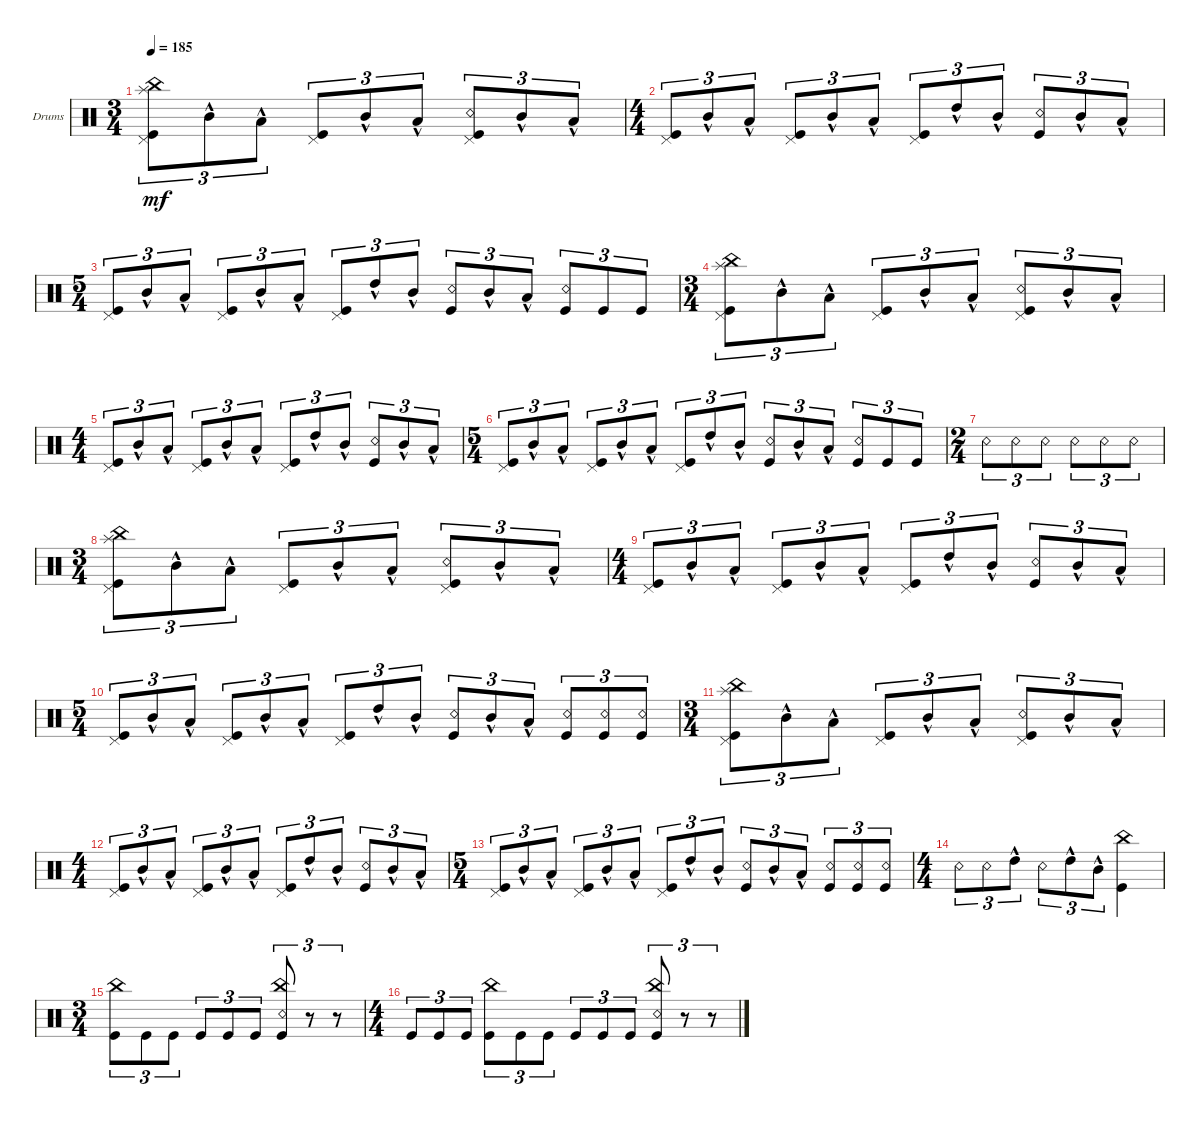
\defaultSystemsLayout 4
\bracketExtendMode groupsimilarinstruments
\firstSystemTrackNameOrientation horizontal
\otherSystemsTrackNameOrientation horizontal
\track ("Ryan" "Drums") {instrument percussion}
\staff {score}
\articulation defaults
\ts (3 4)
\tempo 185
\clef neutral
\ks c
("Kick (hit)" "Pedal Hi-Hat (hit)" "China (hit)" "Splash (hit)").8{tu (3 2) dy mf} "Mid Tom (hit)"{hac}.8{tu (3 2)} "Low Tom (hit)"{hac}.8{tu (3 2)} ("Kick (hit)" "Pedal Hi-Hat (hit)").8{tu (3 2)} "Mid Tom (hit)"{hac}.8{tu (3 2)} "Low Tom (hit)"{hac}.8{tu (3 2)} ("Pedal Hi-Hat (hit)" "Snare (rim shot)" "Kick (hit)").8{tu (3 2)} "Mid Tom (hit)"{hac}.8{tu (3 2)} "Low Tom (hit)"{hac}.8{tu (3 2)} |
\ts (4 4)
("Kick (hit)" "Pedal Hi-Hat (hit)").8{tu (3 2)} "Mid Tom (hit)"{hac}.8{tu (3 2)} "Low Tom (hit)"{hac}.8{tu (3 2)} ("Kick (hit)" "Pedal Hi-Hat (hit)").8{tu (3 2)} "Mid Tom (hit)"{hac}.8{tu (3 2)} "Low Tom (hit)"{hac}.8{tu (3 2)} ("Kick (hit)" "Pedal Hi-Hat (hit)").8{tu (3 2)} "High Tom (hit)"{hac}.8{tu (3 2)} "Mid Tom (hit)"{hac}.8{tu (3 2)} ("Snare (rim shot)" "Kick (hit)").8{tu (3 2)} "Mid Tom (hit)"{hac}.8{tu (3 2)} "Low Tom (hit)"{hac}.8{tu (3 2)} |
\ts (5 4)
("Kick (hit)" "Pedal Hi-Hat (hit)").8{tu (3 2)} "Mid Tom (hit)"{hac}.8{tu (3 2)} "Low Tom (hit)"{hac}.8{tu (3 2)} ("Kick (hit)" "Pedal Hi-Hat (hit)").8{tu (3 2)} "Mid Tom (hit)"{hac}.8{tu (3 2)} "Low Tom (hit)"{hac}.8{tu (3 2)} ("Kick (hit)" "Pedal Hi-Hat (hit)").8{tu (3 2)} "High Tom (hit)"{hac}.8{tu (3 2)} "Mid Tom (hit)"{hac}.8{tu (3 2)} ("Snare (rim shot)" "Kick (hit)").8{tu (3 2)} "Mid Tom (hit)"{hac}.8{tu (3 2)} "Low Tom (hit)"{hac}.8{tu (3 2)} ("Kick (hit)" "Snare (rim shot)").8{tu (3 2)} "Kick (hit)".8{tu (3 2)} "Kick (hit)".8{tu (3 2)} |
\ts (3 4)
("Kick (hit)" "Pedal Hi-Hat (hit)" "China (hit)" "Splash (hit)").8{tu (3 2)} "Mid Tom (hit)"{hac}.8{tu (3 2)} "Low Tom (hit)"{hac}.8{tu (3 2)} ("Kick (hit)" "Pedal Hi-Hat (hit)").8{tu (3 2)} "Mid Tom (hit)"{hac}.8{tu (3 2)} "Low Tom (hit)"{hac}.8{tu (3 2)} ("Pedal Hi-Hat (hit)" "Snare (rim shot)" "Kick (hit)").8{tu (3 2)} "Mid Tom (hit)"{hac}.8{tu (3 2)} "Low Tom (hit)"{hac}.8{tu (3 2)} |
\ts (4 4)
("Kick (hit)" "Pedal Hi-Hat (hit)").8{tu (3 2)} "Mid Tom (hit)"{hac}.8{tu (3 2)} "Low Tom (hit)"{hac}.8{tu (3 2)} ("Kick (hit)" "Pedal Hi-Hat (hit)").8{tu (3 2)} "Mid Tom (hit)"{hac}.8{tu (3 2)} "Low Tom (hit)"{hac}.8{tu (3 2)} ("Kick (hit)" "Pedal Hi-Hat (hit)").8{tu (3 2)} "High Tom (hit)"{hac}.8{tu (3 2)} "Mid Tom (hit)"{hac}.8{tu (3 2)} ("Snare (rim shot)" "Kick (hit)").8{tu (3 2)} "Mid Tom (hit)"{hac}.8{tu (3 2)} "Low Tom (hit)"{hac}.8{tu (3 2)} |
\ts (5 4)
("Kick (hit)" "Pedal Hi-Hat (hit)").8{tu (3 2)} "Mid Tom (hit)"{hac}.8{tu (3 2)} "Low Tom (hit)"{hac}.8{tu (3 2)} ("Kick (hit)" "Pedal Hi-Hat (hit)").8{tu (3 2)} "Mid Tom (hit)"{hac}.8{tu (3 2)} "Low Tom (hit)"{hac}.8{tu (3 2)} ("Kick (hit)" "Pedal Hi-Hat (hit)").8{tu (3 2)} "High Tom (hit)"{hac}.8{tu (3 2)} "Mid Tom (hit)"{hac}.8{tu (3 2)} ("Snare (rim shot)" "Kick (hit)").8{tu (3 2)} "Mid Tom (hit)"{hac}.8{tu (3 2)} "Low Tom (hit)"{hac}.8{tu (3 2)} ("Kick (hit)" "Snare (rim shot)").8{tu (3 2)} "Kick (hit)".8{tu (3 2)} "Kick (hit)".8{tu (3 2)} |
\ts (2 4)
"Snare (rim shot)".8{tu (3 2)} "Snare (rim shot)".8{tu (3 2)} "Snare (rim shot)".8{tu (3 2)} "Snare (rim shot)".8{tu (3 2)} "Snare (rim shot)".8{tu (3 2)} "Snare (rim shot)".8{tu (3 2)} |
\ts (3 4)
("Kick (hit)" "Pedal Hi-Hat (hit)" "China (hit)" "Splash (hit)").8{tu (3 2)} "Mid Tom (hit)"{hac}.8{tu (3 2)} "Low Tom (hit)"{hac}.8{tu (3 2)} ("Kick (hit)" "Pedal Hi-Hat (hit)").8{tu (3 2)} "Mid Tom (hit)"{hac}.8{tu (3 2)} "Low Tom (hit)"{hac}.8{tu (3 2)} ("Pedal Hi-Hat (hit)" "Snare (rim shot)" "Kick (hit)").8{tu (3 2)} "Mid Tom (hit)"{hac}.8{tu (3 2)} "Low Tom (hit)"{hac}.8{tu (3 2)} |
\ts (4 4)
("Kick (hit)" "Pedal Hi-Hat (hit)").8{tu (3 2)} "Mid Tom (hit)"{hac}.8{tu (3 2)} "Low Tom (hit)"{hac}.8{tu (3 2)} ("Kick (hit)" "Pedal Hi-Hat (hit)").8{tu (3 2)} "Mid Tom (hit)"{hac}.8{tu (3 2)} "Low Tom (hit)"{hac}.8{tu (3 2)} ("Kick (hit)" "Pedal Hi-Hat (hit)").8{tu (3 2)} "High Tom (hit)"{hac}.8{tu (3 2)} "Mid Tom (hit)"{hac}.8{tu (3 2)} ("Snare (rim shot)" "Kick (hit)").8{tu (3 2)} "Mid Tom (hit)"{hac}.8{tu (3 2)} "Low Tom (hit)"{hac}.8{tu (3 2)} |
\ts (5 4)
("Kick (hit)" "Pedal Hi-Hat (hit)").8{tu (3 2)} "Mid Tom (hit)"{hac}.8{tu (3 2)} "Low Tom (hit)"{hac}.8{tu (3 2)} ("Kick (hit)" "Pedal Hi-Hat (hit)").8{tu (3 2)} "Mid Tom (hit)"{hac}.8{tu (3 2)} "Low Tom (hit)"{hac}.8{tu (3 2)} ("Kick (hit)" "Pedal Hi-Hat (hit)").8{tu (3 2)} "High Tom (hit)"{hac}.8{tu (3 2)} "Mid Tom (hit)"{hac}.8{tu (3 2)} ("Snare (rim shot)" "Kick (hit)").8{tu (3 2)} "Mid Tom (hit)"{hac}.8{tu (3 2)} "Low Tom (hit)"{hac}.8{tu (3 2)} ("Kick (hit)" "Snare (rim shot)").8{tu (3 2)} ("Kick (hit)" "Snare (rim shot)").8{tu (3 2)} ("Kick (hit)" "Snare (rim shot)").8{tu (3 2)} |
\ts (3 4)
("Kick (hit)" "Pedal Hi-Hat (hit)" "China (hit)" "Splash (hit)").8{tu (3 2)} "Mid Tom (hit)"{hac}.8{tu (3 2)} "Low Tom (hit)"{hac}.8{tu (3 2)} ("Kick (hit)" "Pedal Hi-Hat (hit)").8{tu (3 2)} "Mid Tom (hit)"{hac}.8{tu (3 2)} "Low Tom (hit)"{hac}.8{tu (3 2)} ("Pedal Hi-Hat (hit)" "Snare (rim shot)" "Kick (hit)").8{tu (3 2)} "Mid Tom (hit)"{hac}.8{tu (3 2)} "Low Tom (hit)"{hac}.8{tu (3 2)} |
\ts (4 4)
("Kick (hit)" "Pedal Hi-Hat (hit)").8{tu (3 2)} "Mid Tom (hit)"{hac}.8{tu (3 2)} "Low Tom (hit)"{hac}.8{tu (3 2)} ("Kick (hit)" "Pedal Hi-Hat (hit)").8{tu (3 2)} "Mid Tom (hit)"{hac}.8{tu (3 2)} "Low Tom (hit)"{hac}.8{tu (3 2)} ("Kick (hit)" "Pedal Hi-Hat (hit)").8{tu (3 2)} "High Tom (hit)"{hac}.8{tu (3 2)} "Mid Tom (hit)"{hac}.8{tu (3 2)} ("Snare (rim shot)" "Kick (hit)").8{tu (3 2)} "Mid Tom (hit)"{hac}.8{tu (3 2)} "Low Tom (hit)"{hac}.8{tu (3 2)} |
\ts (5 4)
("Kick (hit)" "Pedal Hi-Hat (hit)").8{tu (3 2)} "Mid Tom (hit)"{hac}.8{tu (3 2)} "Low Tom (hit)"{hac}.8{tu (3 2)} ("Kick (hit)" "Pedal Hi-Hat (hit)").8{tu (3 2)} "Mid Tom (hit)"{hac}.8{tu (3 2)} "Low Tom (hit)"{hac}.8{tu (3 2)} ("Kick (hit)" "Pedal Hi-Hat (hit)").8{tu (3 2)} "High Tom (hit)"{hac}.8{tu (3 2)} "Mid Tom (hit)"{hac}.8{tu (3 2)} ("Snare (rim shot)" "Kick (hit)").8{tu (3 2)} "Mid Tom (hit)"{hac}.8{tu (3 2)} "Low Tom (hit)"{hac}.8{tu (3 2)} ("Kick (hit)" "Snare (rim shot)").8{tu (3 2)} ("Kick (hit)" "Snare (rim shot)").8{tu (3 2)} ("Kick (hit)" "Snare (rim shot)").8{tu (3 2)} |
\ts (4 4)
"Snare (rim shot)".8{tu (3 2)} "Snare (rim shot)".8{tu (3 2)} "High Tom (hit)"{hac}.8{tu (3 2)} "Snare (rim shot)".8{tu (3 2)} "High Tom (hit)"{hac}.8{tu (3 2)} "Mid Tom (hit)"{hac}.8{tu (3 2)} ("Kick (hit)" "China (hit)").4 |
\ts (3 4)
("Kick (hit)" "China (hit)").8{tu (3 2)} "Kick (hit)".8{tu (3 2)} "Kick (hit)".8{tu (3 2)} "Kick (hit)".8{tu (3 2)} "Kick (hit)".8{tu (3 2)} "Kick (hit)".8{tu (3 2)} ("Kick (hit)" "China (hit)" "Snare (rim shot)").8{tu (3 2)} r.8{tu (3 2)} r.8{tu (3 2)} |
\ts (4 4)
"Kick (hit)".8{tu (3 2)} "Kick (hit)".8{tu (3 2)} "Kick (hit)".8{tu (3 2)} ("Kick (hit)" "China (hit)").8{tu (3 2)} "Kick (hit)".8{tu (3 2)} "Kick (hit)".8{tu (3 2)} "Kick (hit)".8{tu (3 2)} "Kick (hit)".8{tu (3 2)} "Kick (hit)".8{tu (3 2)} ("Kick (hit)" "Snare (rim shot)" "China (hit)").8{tu (3 2)} r.8{tu (3 2)} r.8{tu (3 2)}
